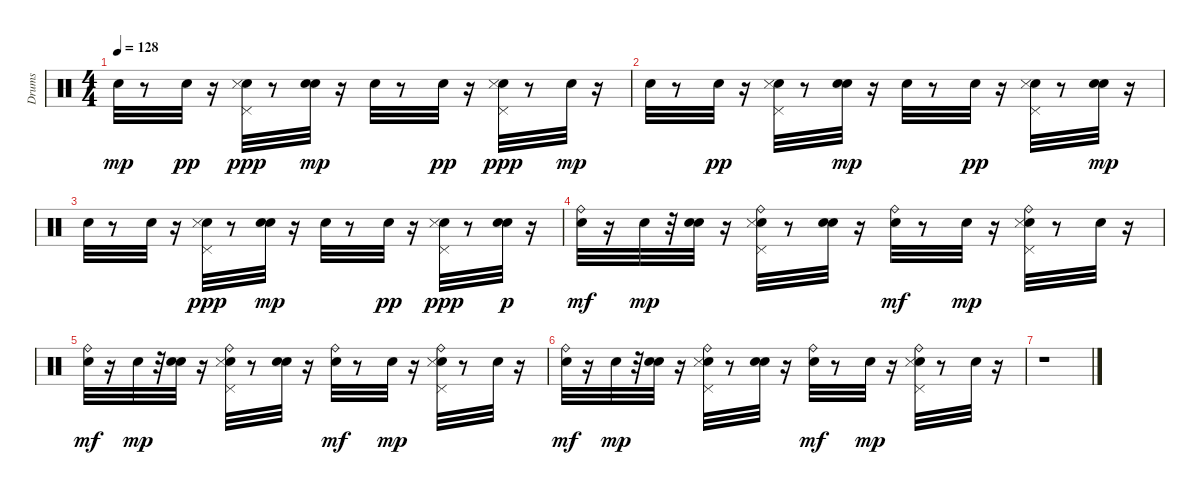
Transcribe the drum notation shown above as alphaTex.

\track ("Drums" "Drums") {instrument percussion}
\staff {score}
\articulation defaults
\ts (4 4)
\tempo 128
\clef neutral
\ks c "Snare (hit)".32{dy mp}
r.8 "Snare (hit)".32{dy pp} r.16 ("Pedal Hi-Hat (hit)" "Snare (hit)" "Snare (side stick) 3").32{dy ppp} r.8 ("Snare (hit)" "Snare (hit)").32{dy mp} r.16 "Snare (hit)".32 r.8 "Snare (hit)".32{dy pp} r.16 ("Pedal Hi-Hat (hit)" "Snare (hit)" "Snare (side stick) 3").32{dy ppp} r.8 "Snare (hit)".32{dy mp} r.16 |
"Snare (hit)".32 r.8 "Snare (hit)".32{dy pp} r.16 ("Pedal Hi-Hat (hit)" "Snare (hit)" "Snare (side stick) 3").32 r.8 ("Snare (hit)" "Snare (hit)").32{dy mp} r.16 "Snare (hit)".32 r.8 "Snare (hit)".32{dy pp} r.16 ("Pedal Hi-Hat (hit)" "Snare (hit)" "Snare (side stick) 3").32 r.8 ("Snare (hit)" "Snare (hit)").32{dy mp} r.16 |
"Snare (hit)".32 r.8 "Snare (hit)".32 r.16 ("Pedal Hi-Hat (hit)" "Snare (hit)" "Snare (side stick) 3").32{dy ppp} r.8 ("Snare (hit)" "Snare (hit)").32{dy mp} r.16 "Snare (hit)".32 r.8 "Snare (hit)".32{dy pp} r.16 ("Pedal Hi-Hat (hit)" "Snare (hit)" "Snare (side stick) 3").32{dy ppp} r.8 ("Snare (hit)" "Snare (hit)").32{dy p} r.16 |
("Snare (hit)" "Ride (bell)").32{dy mf} r.16 "Snare (hit)".32{dy mp} r.32 ("Snare (hit)" "Snare (hit)").32 r.16 ("Pedal Hi-Hat (hit)" "Snare (hit)" "Snare (side stick) 3" "Ride (bell)").32 r.8 ("Snare (hit)" "Snare (hit)").32 r.16 ("Snare (hit)" "Ride (bell)").32{dy mf} r.8 "Snare (hit)".32{dy mp} r.16 ("Pedal Hi-Hat (hit)" "Snare (hit)" "Snare (side stick) 3" "Ride (bell)").32 r.8 "Snare (hit)".32 r.16 |
("Snare (hit)" "Ride (bell)").32{dy mf} r.16 "Snare (hit)".32{dy mp} r.32 ("Snare (hit)" "Snare (hit)").32 r.16 ("Pedal Hi-Hat (hit)" "Snare (hit)" "Snare (side stick) 3" "Ride (bell)").32 r.8 ("Snare (hit)" "Snare (hit)").32 r.16 ("Snare (hit)" "Ride (bell)").32{dy mf} r.8 "Snare (hit)".32{dy mp} r.16 ("Pedal Hi-Hat (hit)" "Snare (hit)" "Snare (side stick) 3" "Ride (bell)").32 r.8 "Snare (hit)".32 r.16 |
("Snare (hit)" "Ride (bell)").32{dy mf} r.16 "Snare (hit)".32{dy mp} r.32 ("Snare (hit)" "Snare (hit)").32 r.16 ("Pedal Hi-Hat (hit)" "Snare (hit)" "Snare (side stick) 3" "Ride (bell)").32 r.8 ("Snare (hit)" "Snare (hit)").32 r.16 ("Snare (hit)" "Ride (bell)").32{dy mf} r.8 "Snare (hit)".32{dy mp} r.16 ("Pedal Hi-Hat (hit)" "Snare (hit)" "Snare (side stick) 3" "Ride (bell)").32 r.8 "Snare (hit)".32 r.16 |
r.1
